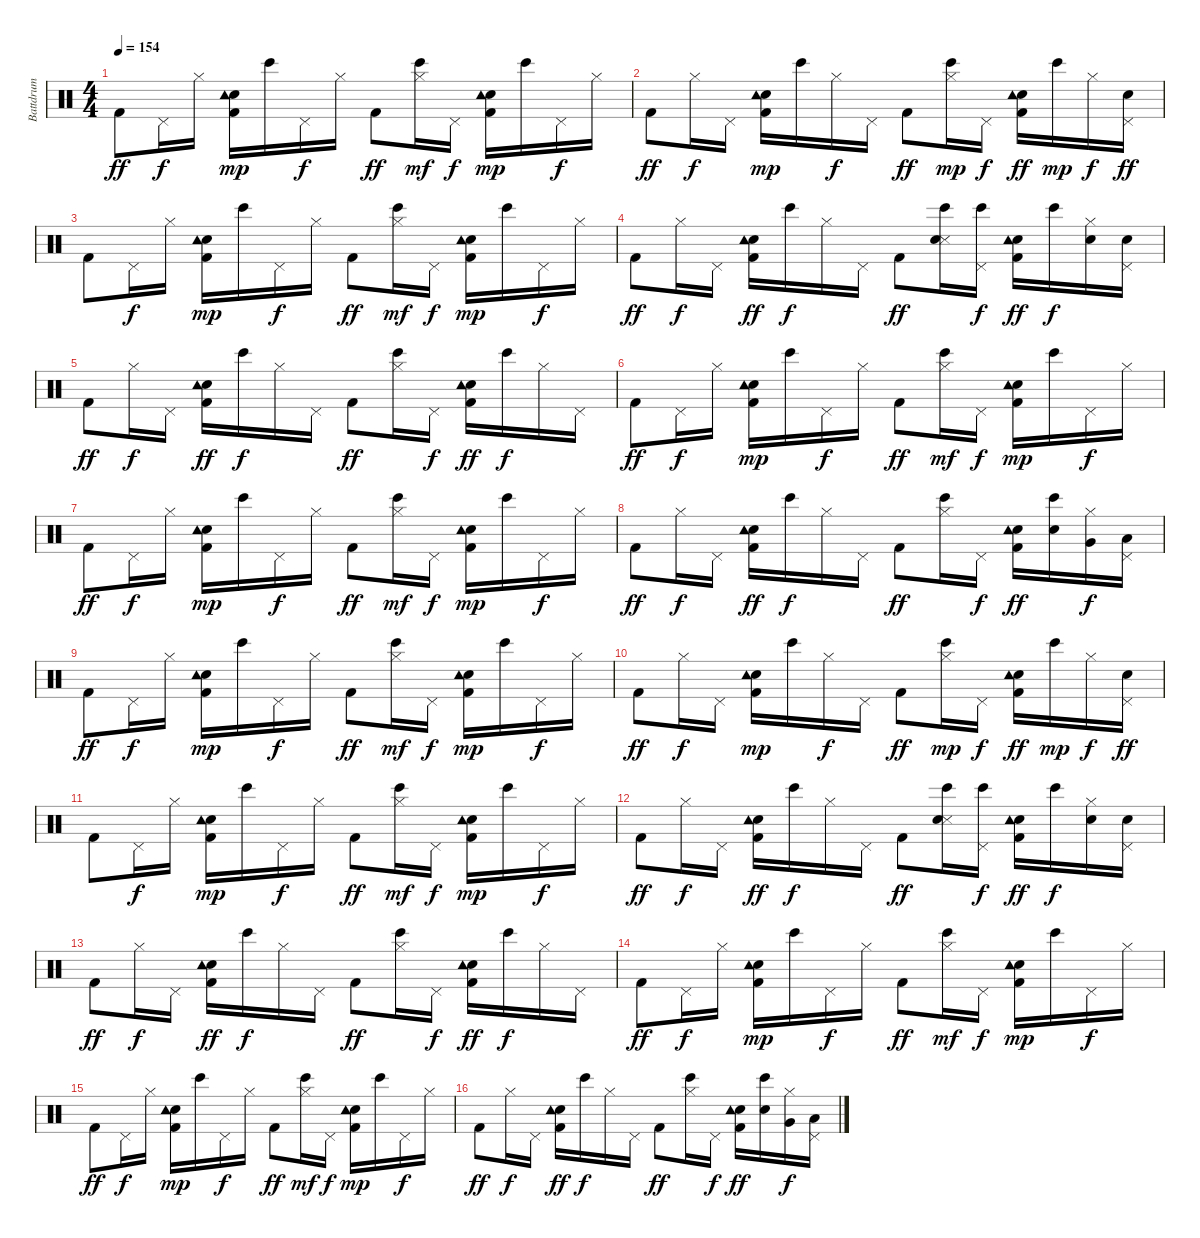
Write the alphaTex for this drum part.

\track ("Battdrum" "Battdrum") {instrument percussion}
\staff {score}
\articulation defaults
\ts (4 4)
\tempo 154
\clef neutral
\ks c "Kick (hit) 2".8{dy ff} "Pedal Hi-Hat (hit)".16{dy f} "Hi-Hat (closed)".16
("Kick (hit) 2" "Electric Snare (hit)" "Tambourine (hit)").16{dy mp} "Bongo High (hit)".16 "Pedal Hi-Hat (hit)".16{dy f} "Hi-Hat (closed)".16 "Kick (hit) 2".8{dy ff} ("Bongo High (hit)" "Hi-Hat (closed)").16{dy mf} "Pedal Hi-Hat (hit)".16{dy f} ("Kick (hit) 2" "Electric Snare (hit)" "Tambourine (hit)").16{dy mp} "Bongo High (hit)".16 "Pedal Hi-Hat (hit)".16{dy f} "Hi-Hat (closed)".16 |
"Kick (hit) 2".8{dy ff} "Hi-Hat (closed)".16{dy f} "Pedal Hi-Hat (hit)".16 ("Kick (hit) 2" "Electric Snare (hit)" "Tambourine (hit)").16{dy mp} "Bongo High (hit)".16 "Hi-Hat (closed)".16{dy f} "Pedal Hi-Hat (hit)".16 "Kick (hit) 2".8{dy ff} ("Bongo High (hit)" "Hi-Hat (closed)").16{dy mp} "Pedal Hi-Hat (hit)".16{dy f} ("Kick (hit) 2" "Electric Snare (hit)" "Tambourine (hit)").16{dy ff} "Bongo High (hit)".16{dy mp} "Hi-Hat (closed)".16{dy f} ("Electric Snare (hit)" "Pedal Hi-Hat (hit)").16{dy ff} |
"Kick (hit) 2".8 "Pedal Hi-Hat (hit)".16{dy f} "Hi-Hat (closed)".16 ("Kick (hit) 2" "Electric Snare (hit)" "Tambourine (hit)").16{dy mp} "Bongo High (hit)".16 "Pedal Hi-Hat (hit)".16{dy f} "Hi-Hat (closed)".16 "Kick (hit) 2".8{dy ff} ("Bongo High (hit)" "Hi-Hat (closed)").16{dy mf} "Pedal Hi-Hat (hit)".16{dy f} ("Kick (hit) 2" "Electric Snare (hit)" "Tambourine (hit)").16{dy mp} "Bongo High (hit)".16 "Pedal Hi-Hat (hit)".16{dy f} "Hi-Hat (closed)".16 |
"Kick (hit) 2".8{dy ff} "Hi-Hat (closed)".16{dy f} "Pedal Hi-Hat (hit)".16 ("Kick (hit) 2" "Electric Snare (hit)" "Tambourine (hit)").16{dy ff} "Bongo High (hit)".16{dy f} "Hi-Hat (closed)".16 "Pedal Hi-Hat (hit)".16 "Kick (hit) 2".8{dy ff} ("Snare (side stick) 3" "Electric Snare (hit)" "Bongo High (hit)").16 ("Bongo High (hit)" "Pedal Hi-Hat (hit)").16{dy f} ("Kick (hit) 2" "Electric Snare (hit)" "Tambourine (hit)").16{dy ff} "Bongo High (hit)".16{dy f} ("Electric Snare (hit)" "Hi-Hat (closed)").16 ("Electric Snare (hit)" "Pedal Hi-Hat (hit)").16 |
"Kick (hit) 2".8{dy ff} "Hi-Hat (closed)".16{dy f} "Pedal Hi-Hat (hit)".16 ("Kick (hit) 2" "Electric Snare (hit)" "Tambourine (hit)").16{dy ff} "Bongo High (hit)".16{dy f} "Hi-Hat (closed)".16 "Pedal Hi-Hat (hit)".16 "Kick (hit) 2".8{dy ff} ("Bongo High (hit)" "Hi-Hat (closed)").16 "Pedal Hi-Hat (hit)".16{dy f} ("Kick (hit) 2" "Electric Snare (hit)" "Tambourine (hit)").16{dy ff} "Bongo High (hit)".16{dy f} "Hi-Hat (closed)".16 "Pedal Hi-Hat (hit)".16 |
"Kick (hit) 2".8{dy ff} "Pedal Hi-Hat (hit)".16{dy f} "Hi-Hat (closed)".16 ("Kick (hit) 2" "Electric Snare (hit)" "Tambourine (hit)").16{dy mp} "Bongo High (hit)".16 "Pedal Hi-Hat (hit)".16{dy f} "Hi-Hat (closed)".16 "Kick (hit) 2".8{dy ff} ("Bongo High (hit)" "Hi-Hat (closed)").16{dy mf} "Pedal Hi-Hat (hit)".16{dy f} ("Kick (hit) 2" "Electric Snare (hit)" "Tambourine (hit)").16{dy mp} "Bongo High (hit)".16 "Pedal Hi-Hat (hit)".16{dy f} "Hi-Hat (closed)".16 |
"Kick (hit) 2".8{dy ff} "Pedal Hi-Hat (hit)".16{dy f} "Hi-Hat (closed)".16 ("Kick (hit) 2" "Electric Snare (hit)" "Tambourine (hit)").16{dy mp} "Bongo High (hit)".16 "Pedal Hi-Hat (hit)".16{dy f} "Hi-Hat (closed)".16 "Kick (hit) 2".8{dy ff} ("Bongo High (hit)" "Hi-Hat (closed)").16{dy mf} "Pedal Hi-Hat (hit)".16{dy f} ("Kick (hit) 2" "Electric Snare (hit)" "Tambourine (hit)").16{dy mp} "Bongo High (hit)".16 "Pedal Hi-Hat (hit)".16{dy f} "Hi-Hat (closed)".16 |
"Kick (hit) 2".8{dy ff} "Hi-Hat (closed)".16{dy f} "Pedal Hi-Hat (hit)".16 ("Kick (hit) 2" "Electric Snare (hit)" "Tambourine (hit)").16{dy ff} "Bongo High (hit)".16{dy f} "Hi-Hat (closed)".16 "Pedal Hi-Hat (hit)".16 "Kick (hit) 2".8{dy ff} ("Bongo High (hit)" "Hi-Hat (closed)").16 "Pedal Hi-Hat (hit)".16{dy f} ("Kick (hit) 2" "Electric Snare (hit)" "Tambourine (hit)").16{dy ff} ("Electric Snare (hit)" "Bongo High (hit)").16 ("Hi-Hat (closed)" "Very Low Tom (hit)").16{dy f} ("Pedal Hi-Hat (hit)" "Low Tom (hit)").16 |
"Kick (hit) 2".8{dy ff} "Pedal Hi-Hat (hit)".16{dy f} "Hi-Hat (closed)".16 ("Kick (hit) 2" "Electric Snare (hit)" "Tambourine (hit)").16{dy mp} "Bongo High (hit)".16 "Pedal Hi-Hat (hit)".16{dy f} "Hi-Hat (closed)".16 "Kick (hit) 2".8{dy ff} ("Bongo High (hit)" "Hi-Hat (closed)").16{dy mf} "Pedal Hi-Hat (hit)".16{dy f} ("Kick (hit) 2" "Electric Snare (hit)" "Tambourine (hit)").16{dy mp} "Bongo High (hit)".16 "Pedal Hi-Hat (hit)".16{dy f} "Hi-Hat (closed)".16 |
"Kick (hit) 2".8{dy ff} "Hi-Hat (closed)".16{dy f} "Pedal Hi-Hat (hit)".16 ("Kick (hit) 2" "Electric Snare (hit)" "Tambourine (hit)").16{dy mp} "Bongo High (hit)".16 "Hi-Hat (closed)".16{dy f} "Pedal Hi-Hat (hit)".16 "Kick (hit) 2".8{dy ff} ("Bongo High (hit)" "Hi-Hat (closed)").16{dy mp} "Pedal Hi-Hat (hit)".16{dy f} ("Kick (hit) 2" "Electric Snare (hit)" "Tambourine (hit)").16{dy ff} "Bongo High (hit)".16{dy mp} "Hi-Hat (closed)".16{dy f} ("Electric Snare (hit)" "Pedal Hi-Hat (hit)").16{dy ff} |
"Kick (hit) 2".8 "Pedal Hi-Hat (hit)".16{dy f} "Hi-Hat (closed)".16 ("Kick (hit) 2" "Electric Snare (hit)" "Tambourine (hit)").16{dy mp} "Bongo High (hit)".16 "Pedal Hi-Hat (hit)".16{dy f} "Hi-Hat (closed)".16 "Kick (hit) 2".8{dy ff} ("Bongo High (hit)" "Hi-Hat (closed)").16{dy mf} "Pedal Hi-Hat (hit)".16{dy f} ("Kick (hit) 2" "Electric Snare (hit)" "Tambourine (hit)").16{dy mp} "Bongo High (hit)".16 "Pedal Hi-Hat (hit)".16{dy f} "Hi-Hat (closed)".16 |
"Kick (hit) 2".8{dy ff} "Hi-Hat (closed)".16{dy f} "Pedal Hi-Hat (hit)".16 ("Kick (hit) 2" "Electric Snare (hit)" "Tambourine (hit)").16{dy ff} "Bongo High (hit)".16{dy f} "Hi-Hat (closed)".16 "Pedal Hi-Hat (hit)".16 "Kick (hit) 2".8{dy ff} ("Snare (side stick) 3" "Electric Snare (hit)" "Bongo High (hit)").16 ("Bongo High (hit)" "Pedal Hi-Hat (hit)").16{dy f} ("Kick (hit) 2" "Electric Snare (hit)" "Tambourine (hit)").16{dy ff} "Bongo High (hit)".16{dy f} ("Electric Snare (hit)" "Hi-Hat (closed)").16 ("Electric Snare (hit)" "Pedal Hi-Hat (hit)").16 |
"Kick (hit) 2".8{dy ff} "Hi-Hat (closed)".16{dy f} "Pedal Hi-Hat (hit)".16 ("Kick (hit) 2" "Electric Snare (hit)" "Tambourine (hit)").16{dy ff} "Bongo High (hit)".16{dy f} "Hi-Hat (closed)".16 "Pedal Hi-Hat (hit)".16 "Kick (hit) 2".8{dy ff} ("Bongo High (hit)" "Hi-Hat (closed)").16 "Pedal Hi-Hat (hit)".16{dy f} ("Kick (hit) 2" "Electric Snare (hit)" "Tambourine (hit)").16{dy ff} "Bongo High (hit)".16{dy f} "Hi-Hat (closed)".16 "Pedal Hi-Hat (hit)".16 |
"Kick (hit) 2".8{dy ff} "Pedal Hi-Hat (hit)".16{dy f} "Hi-Hat (closed)".16 ("Kick (hit) 2" "Electric Snare (hit)" "Tambourine (hit)").16{dy mp} "Bongo High (hit)".16 "Pedal Hi-Hat (hit)".16{dy f} "Hi-Hat (closed)".16 "Kick (hit) 2".8{dy ff} ("Bongo High (hit)" "Hi-Hat (closed)").16{dy mf} "Pedal Hi-Hat (hit)".16{dy f} ("Kick (hit) 2" "Electric Snare (hit)" "Tambourine (hit)").16{dy mp} "Bongo High (hit)".16 "Pedal Hi-Hat (hit)".16{dy f} "Hi-Hat (closed)".16 |
"Kick (hit) 2".8{dy ff} "Pedal Hi-Hat (hit)".16{dy f} "Hi-Hat (closed)".16 ("Kick (hit) 2" "Electric Snare (hit)" "Tambourine (hit)").16{dy mp} "Bongo High (hit)".16 "Pedal Hi-Hat (hit)".16{dy f} "Hi-Hat (closed)".16 "Kick (hit) 2".8{dy ff} ("Bongo High (hit)" "Hi-Hat (closed)").16{dy mf} "Pedal Hi-Hat (hit)".16{dy f} ("Kick (hit) 2" "Electric Snare (hit)" "Tambourine (hit)").16{dy mp} "Bongo High (hit)".16 "Pedal Hi-Hat (hit)".16{dy f} "Hi-Hat (closed)".16 |
"Kick (hit) 2".8{dy ff} "Hi-Hat (closed)".16{dy f} "Pedal Hi-Hat (hit)".16 ("Kick (hit) 2" "Electric Snare (hit)" "Tambourine (hit)").16{dy ff} "Bongo High (hit)".16{dy f} "Hi-Hat (closed)".16 "Pedal Hi-Hat (hit)".16 "Kick (hit) 2".8{dy ff} ("Bongo High (hit)" "Hi-Hat (closed)").16 "Pedal Hi-Hat (hit)".16{dy f} ("Kick (hit) 2" "Electric Snare (hit)" "Tambourine (hit)").16{dy ff} ("Electric Snare (hit)" "Bongo High (hit)").16 ("Hi-Hat (closed)" "Very Low Tom (hit)").16{dy f} ("Pedal Hi-Hat (hit)" "Low Tom (hit)").16
